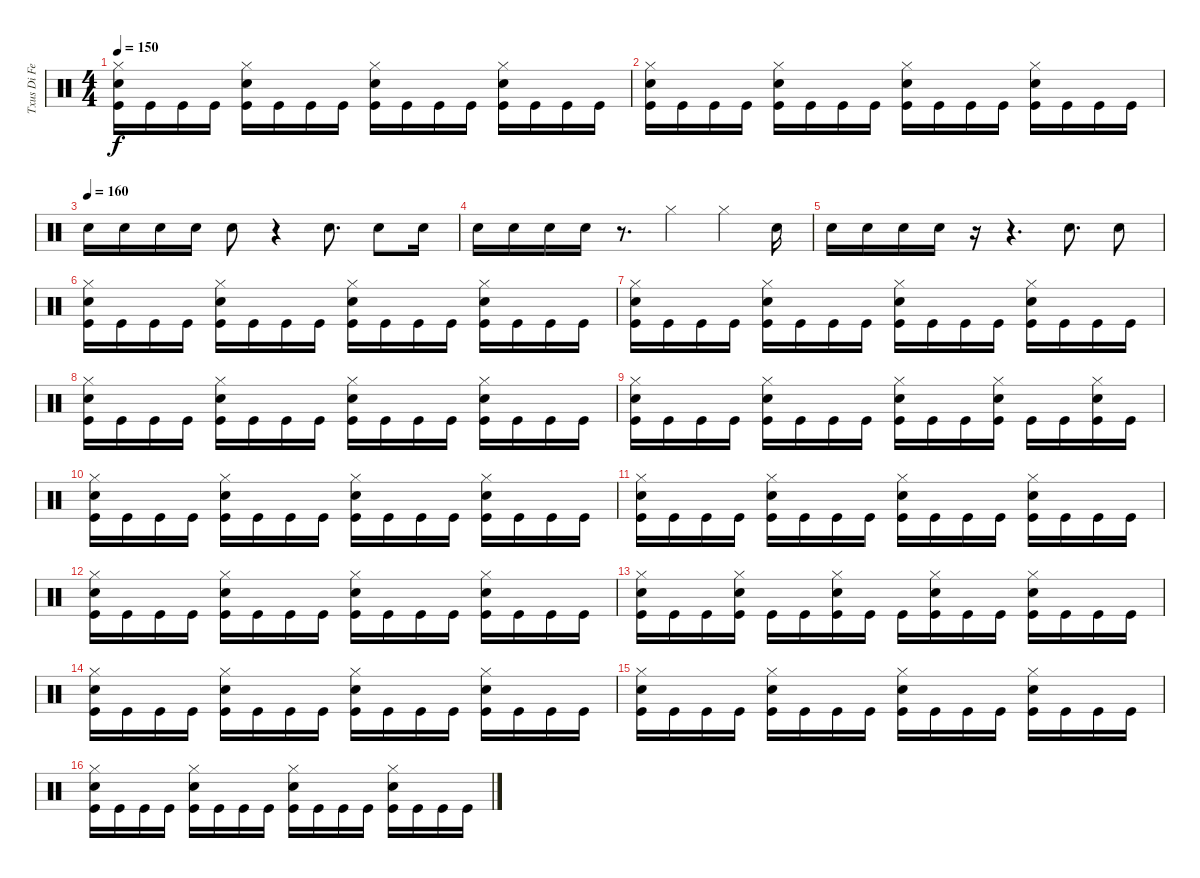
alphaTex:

\track ("Txus Di Fellatio" "Txus Di Fe") {instrument percussion}
\staff {score}
\articulation defaults
\ts (4 4)
\tempo 150
\clef neutral
\ks c
("Hi-Hat (closed)" "Snare (hit) 2" "Kick (hit)").16{dy f} "Kick (hit)".16 "Kick (hit)".16 "Kick (hit)".16 ("Hi-Hat (closed)" "Snare (hit) 2" "Kick (hit)").16 "Kick (hit)".16 "Kick (hit)".16 "Kick (hit)".16 ("Hi-Hat (closed)" "Snare (hit) 2" "Kick (hit)").16 "Kick (hit)".16 "Kick (hit)".16 "Kick (hit)".16 ("Hi-Hat (closed)" "Snare (hit) 2" "Kick (hit)").16 "Kick (hit)".16 "Kick (hit)".16 "Kick (hit)".16 |
("Hi-Hat (closed)" "Snare (hit) 2" "Kick (hit)").16 "Kick (hit)".16 "Kick (hit)".16 "Kick (hit)".16 ("Hi-Hat (closed)" "Snare (hit) 2" "Kick (hit)").16 "Kick (hit)".16 "Kick (hit)".16 "Kick (hit)".16 ("Hi-Hat (closed)" "Snare (hit) 2" "Kick (hit)").16 "Kick (hit)".16 "Kick (hit)".16 "Kick (hit)".16 ("Hi-Hat (closed)" "Snare (hit) 2" "Kick (hit)").16 "Kick (hit)".16 "Kick (hit)".16 "Kick (hit)".16 |
\tempo (160)
"Snare (hit) 2".16 "Snare (hit) 2".16 "Snare (hit) 2".16 "Snare (hit) 2".16 "Snare (hit) 2".8 r.4 "Snare (hit) 2".8{d} "Snare (hit) 2".8 "Snare (hit) 2".16 |
"Snare (hit) 2".16 "Snare (hit) 2".16 "Snare (hit) 2".16 "Snare (hit) 2".16 r.8{d} "Hi-Hat (closed)".4 "Hi-Hat (closed)".4 "Snare (hit) 2".16 |
"Snare (hit) 2".16 "Snare (hit) 2".16 "Snare (hit) 2".16 "Snare (hit) 2".16 r.16 r.4{d} "Snare (hit) 2".8{d} "Snare (hit) 2".8 |
("Hi-Hat (closed)" "Snare (hit) 2" "Kick (hit)").16 "Kick (hit)".16 "Kick (hit)".16 "Kick (hit)".16 ("Hi-Hat (closed)" "Snare (hit) 2" "Kick (hit)").16 "Kick (hit)".16 "Kick (hit)".16 "Kick (hit)".16 ("Hi-Hat (closed)" "Snare (hit) 2" "Kick (hit)").16 "Kick (hit)".16 "Kick (hit)".16 "Kick (hit)".16 ("Hi-Hat (closed)" "Snare (hit) 2" "Kick (hit)").16 "Kick (hit)".16 "Kick (hit)".16 "Kick (hit)".16 |
("Hi-Hat (closed)" "Snare (hit) 2" "Kick (hit)").16 "Kick (hit)".16 "Kick (hit)".16 "Kick (hit)".16 ("Hi-Hat (closed)" "Snare (hit) 2" "Kick (hit)").16 "Kick (hit)".16 "Kick (hit)".16 "Kick (hit)".16 ("Hi-Hat (closed)" "Snare (hit) 2" "Kick (hit)").16 "Kick (hit)".16 "Kick (hit)".16 "Kick (hit)".16 ("Hi-Hat (closed)" "Snare (hit) 2" "Kick (hit)").16 "Kick (hit)".16 "Kick (hit)".16 "Kick (hit)".16 |
("Hi-Hat (closed)" "Snare (hit) 2" "Kick (hit)").16 "Kick (hit)".16 "Kick (hit)".16 "Kick (hit)".16 ("Hi-Hat (closed)" "Snare (hit) 2" "Kick (hit)").16 "Kick (hit)".16 "Kick (hit)".16 "Kick (hit)".16 ("Hi-Hat (closed)" "Snare (hit) 2" "Kick (hit)").16 "Kick (hit)".16 "Kick (hit)".16 "Kick (hit)".16 ("Hi-Hat (closed)" "Snare (hit) 2" "Kick (hit)").16 "Kick (hit)".16 "Kick (hit)".16 "Kick (hit)".16 |
("Hi-Hat (closed)" "Snare (hit) 2" "Kick (hit)").16 "Kick (hit)".16 "Kick (hit)".16 "Kick (hit)".16 ("Hi-Hat (closed)" "Snare (hit) 2" "Kick (hit)").16 "Kick (hit)".16 "Kick (hit)".16 "Kick (hit)".16 ("Hi-Hat (closed)" "Snare (hit) 2" "Kick (hit)").16 "Kick (hit)".16 "Kick (hit)".16 ("Hi-Hat (closed)" "Snare (hit) 2" "Kick (hit)").16 "Kick (hit)".16 "Kick (hit)".16 ("Hi-Hat (closed)" "Snare (hit) 2" "Kick (hit)").16 "Kick (hit)".16 |
("Hi-Hat (closed)" "Snare (hit) 2" "Kick (hit)").16 "Kick (hit)".16 "Kick (hit)".16 "Kick (hit)".16 ("Hi-Hat (closed)" "Snare (hit) 2" "Kick (hit)").16 "Kick (hit)".16 "Kick (hit)".16 "Kick (hit)".16 ("Hi-Hat (closed)" "Snare (hit) 2" "Kick (hit)").16 "Kick (hit)".16 "Kick (hit)".16 "Kick (hit)".16 ("Hi-Hat (closed)" "Snare (hit) 2" "Kick (hit)").16 "Kick (hit)".16 "Kick (hit)".16 "Kick (hit)".16 |
("Hi-Hat (closed)" "Snare (hit) 2" "Kick (hit)").16 "Kick (hit)".16 "Kick (hit)".16 "Kick (hit)".16 ("Hi-Hat (closed)" "Snare (hit) 2" "Kick (hit)").16 "Kick (hit)".16 "Kick (hit)".16 "Kick (hit)".16 ("Hi-Hat (closed)" "Snare (hit) 2" "Kick (hit)").16 "Kick (hit)".16 "Kick (hit)".16 "Kick (hit)".16 ("Hi-Hat (closed)" "Snare (hit) 2" "Kick (hit)").16 "Kick (hit)".16 "Kick (hit)".16 "Kick (hit)".16 |
("Hi-Hat (closed)" "Snare (hit) 2" "Kick (hit)").16 "Kick (hit)".16 "Kick (hit)".16 "Kick (hit)".16 ("Hi-Hat (closed)" "Snare (hit) 2" "Kick (hit)").16 "Kick (hit)".16 "Kick (hit)".16 "Kick (hit)".16 ("Hi-Hat (closed)" "Snare (hit) 2" "Kick (hit)").16 "Kick (hit)".16 "Kick (hit)".16 "Kick (hit)".16 ("Hi-Hat (closed)" "Snare (hit) 2" "Kick (hit)").16 "Kick (hit)".16 "Kick (hit)".16 "Kick (hit)".16 |
("Hi-Hat (closed)" "Snare (hit) 2" "Kick (hit)").16 "Kick (hit)".16 "Kick (hit)".16 ("Hi-Hat (closed)" "Snare (hit) 2" "Kick (hit)").16 "Kick (hit)".16 "Kick (hit)".16 ("Hi-Hat (closed)" "Snare (hit) 2" "Kick (hit)").16 "Kick (hit)".16 "Kick (hit)".16 ("Hi-Hat (closed)" "Snare (hit) 2" "Kick (hit)").16 "Kick (hit)".16 "Kick (hit)".16 ("Hi-Hat (closed)" "Snare (hit) 2" "Kick (hit)").16 "Kick (hit)".16 "Kick (hit)".16 "Kick (hit)".16 |
("Hi-Hat (closed)" "Snare (hit) 2" "Kick (hit)").16 "Kick (hit)".16 "Kick (hit)".16 "Kick (hit)".16 ("Hi-Hat (closed)" "Snare (hit) 2" "Kick (hit)").16 "Kick (hit)".16 "Kick (hit)".16 "Kick (hit)".16 ("Hi-Hat (closed)" "Snare (hit) 2" "Kick (hit)").16 "Kick (hit)".16 "Kick (hit)".16 "Kick (hit)".16 ("Hi-Hat (closed)" "Snare (hit) 2" "Kick (hit)").16 "Kick (hit)".16 "Kick (hit)".16 "Kick (hit)".16 |
("Hi-Hat (closed)" "Snare (hit) 2" "Kick (hit)").16 "Kick (hit)".16 "Kick (hit)".16 "Kick (hit)".16 ("Hi-Hat (closed)" "Snare (hit) 2" "Kick (hit)").16 "Kick (hit)".16 "Kick (hit)".16 "Kick (hit)".16 ("Hi-Hat (closed)" "Snare (hit) 2" "Kick (hit)").16 "Kick (hit)".16 "Kick (hit)".16 "Kick (hit)".16 ("Hi-Hat (closed)" "Snare (hit) 2" "Kick (hit)").16 "Kick (hit)".16 "Kick (hit)".16 "Kick (hit)".16 |
("Hi-Hat (closed)" "Snare (hit) 2" "Kick (hit)").16 "Kick (hit)".16 "Kick (hit)".16 "Kick (hit)".16 ("Hi-Hat (closed)" "Snare (hit) 2" "Kick (hit)").16 "Kick (hit)".16 "Kick (hit)".16 "Kick (hit)".16 ("Hi-Hat (closed)" "Snare (hit) 2" "Kick (hit)").16 "Kick (hit)".16 "Kick (hit)".16 "Kick (hit)".16 ("Hi-Hat (closed)" "Snare (hit) 2" "Kick (hit)").16 "Kick (hit)".16 "Kick (hit)".16 "Kick (hit)".16
